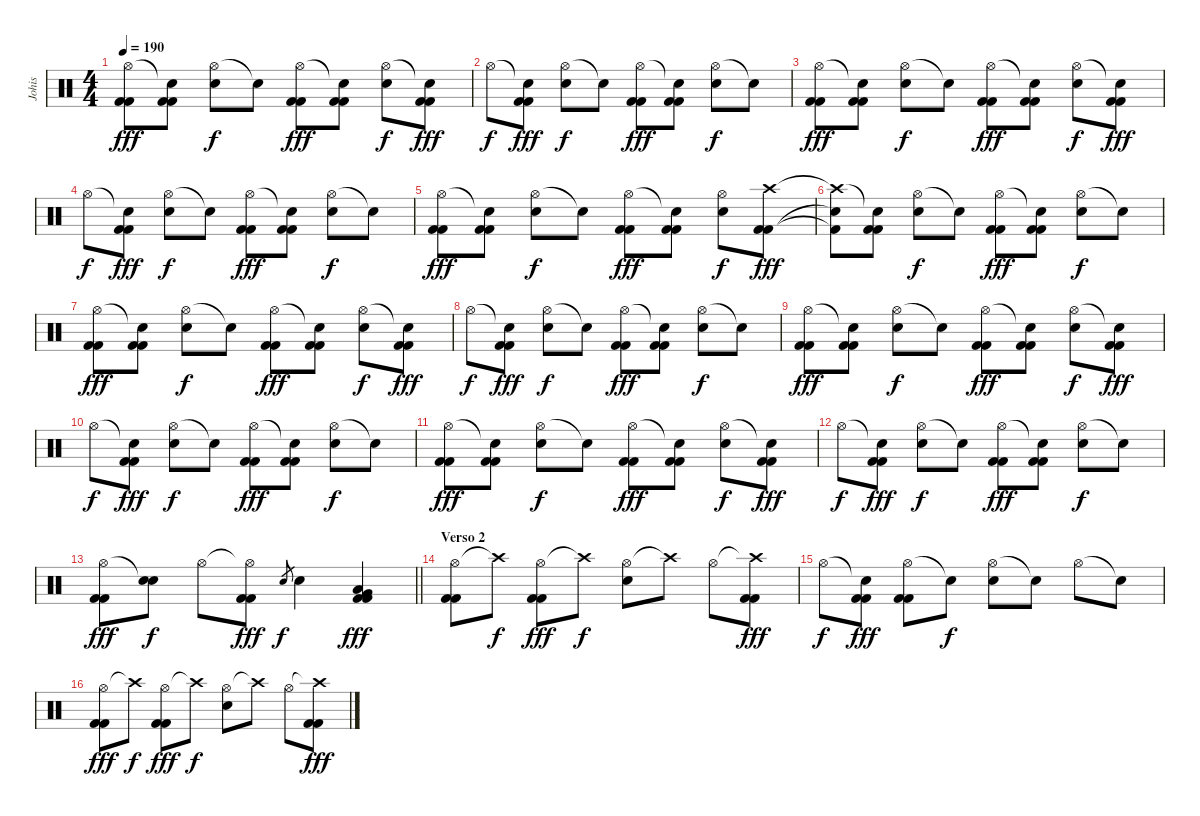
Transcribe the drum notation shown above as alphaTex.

\track ("Johis" "Johis") {instrument percussion}
\staff {score}
\articulation defaults
\ts (4 4)
\tempo 190
\clef neutral
\ks c
("Hi-Hat (open)" "Kick (hit) 2" "Kick (hit) 2").8{dy fff} ("Snare (hit)"{t} "Kick (hit) 2" "Kick (hit) 2").8 ("Hi-Hat (open)" "Electric Snare (hit)").8{dy f} "Snare (hit)"{t}.8 ("Hi-Hat (open)" "Kick (hit) 2" "Kick (hit) 2").8{dy fff} ("Snare (hit)"{t} "Kick (hit) 2" "Kick (hit) 2").8 ("Hi-Hat (open)" "Electric Snare (hit)").8{dy f} ("Snare (hit)"{t} "Kick (hit) 2" "Kick (hit) 2").8{dy fff} |
"Hi-Hat (open)".8{dy f} ("Snare (hit)"{t} "Kick (hit) 2" "Kick (hit) 2").8{dy fff} ("Hi-Hat (open)" "Electric Snare (hit)").8{dy f} "Snare (hit)"{t}.8 ("Hi-Hat (open)" "Kick (hit) 2" "Kick (hit) 2").8{dy fff} ("Snare (hit)"{t} "Kick (hit) 2" "Kick (hit) 2").8 ("Hi-Hat (open)" "Electric Snare (hit)").8{dy f} "Snare (hit)"{t}.8 |
("Hi-Hat (open)" "Kick (hit) 2" "Kick (hit) 2").8{dy fff} ("Snare (hit)"{t} "Kick (hit) 2" "Kick (hit) 2").8 ("Hi-Hat (open)" "Electric Snare (hit)").8{dy f} "Snare (hit)"{t}.8 ("Hi-Hat (open)" "Kick (hit) 2" "Kick (hit) 2").8{dy fff} ("Snare (hit)"{t} "Kick (hit) 2" "Kick (hit) 2").8 ("Hi-Hat (open)" "Electric Snare (hit)").8{dy f} ("Snare (hit)"{t} "Kick (hit) 2" "Kick (hit) 2").8{dy fff} |
"Hi-Hat (open)".8{dy f} ("Snare (hit)"{t} "Kick (hit) 2" "Kick (hit) 2").8{dy fff} ("Hi-Hat (open)" "Electric Snare (hit)").8{dy f} "Snare (hit)"{t}.8 ("Hi-Hat (open)" "Kick (hit) 2" "Kick (hit) 2").8{dy fff} ("Snare (hit)"{t} "Kick (hit) 2" "Kick (hit) 2").8 ("Hi-Hat (open)" "Electric Snare (hit)").8{dy f} "Snare (hit)"{t}.8 |
("Hi-Hat (open)" "Kick (hit) 2" "Kick (hit) 2").8{dy fff} ("Snare (hit)"{t} "Kick (hit) 2" "Kick (hit) 2").8 ("Hi-Hat (open)" "Electric Snare (hit)").8{dy f} "Snare (hit)"{t}.8 ("Hi-Hat (open)" "Kick (hit) 2" "Kick (hit) 2").8{dy fff} ("Snare (hit)"{t} "Kick (hit) 2" "Kick (hit) 2").8 ("Hi-Hat (open)" "Electric Snare (hit)").8{dy f} ("Crash high (hit)" "Kick (hit) 2" "Kick (hit) 2").8{dy fff} |
("Crash high (hit)"{t} "Snare (hit)"{t} "Kick (hit) 2"{t}).8 ("Snare (hit)"{t} "Kick (hit) 2" "Kick (hit) 2").8 ("Hi-Hat (open)" "Electric Snare (hit)").8{dy f} "Snare (hit)"{t}.8 ("Hi-Hat (open)" "Kick (hit) 2" "Kick (hit) 2").8{dy fff} ("Snare (hit)"{t} "Kick (hit) 2" "Kick (hit) 2").8 ("Hi-Hat (open)" "Electric Snare (hit)").8{dy f} "Snare (hit)"{t}.8 |
("Hi-Hat (open)" "Kick (hit) 2" "Kick (hit) 2").8{dy fff} ("Snare (hit)"{t} "Kick (hit) 2" "Kick (hit) 2").8 ("Hi-Hat (open)" "Electric Snare (hit)").8{dy f} "Snare (hit)"{t}.8 ("Hi-Hat (open)" "Kick (hit) 2" "Kick (hit) 2").8{dy fff} ("Snare (hit)"{t} "Kick (hit) 2" "Kick (hit) 2").8 ("Hi-Hat (open)" "Electric Snare (hit)").8{dy f} ("Snare (hit)"{t} "Kick (hit) 2" "Kick (hit) 2").8{dy fff} |
"Hi-Hat (open)".8{dy f} ("Snare (hit)"{t} "Kick (hit) 2" "Kick (hit) 2").8{dy fff} ("Hi-Hat (open)" "Electric Snare (hit)").8{dy f} "Snare (hit)"{t}.8 ("Hi-Hat (open)" "Kick (hit) 2" "Kick (hit) 2").8{dy fff} ("Snare (hit)"{t} "Kick (hit) 2" "Kick (hit) 2").8 ("Hi-Hat (open)" "Electric Snare (hit)").8{dy f} "Snare (hit)"{t}.8 |
("Hi-Hat (open)" "Kick (hit) 2" "Kick (hit) 2").8{dy fff} ("Snare (hit)"{t} "Kick (hit) 2" "Kick (hit) 2").8 ("Hi-Hat (open)" "Electric Snare (hit)").8{dy f} "Snare (hit)"{t}.8 ("Hi-Hat (open)" "Kick (hit) 2" "Kick (hit) 2").8{dy fff} ("Snare (hit)"{t} "Kick (hit) 2" "Kick (hit) 2").8 ("Hi-Hat (open)" "Electric Snare (hit)").8{dy f} ("Snare (hit)"{t} "Kick (hit) 2" "Kick (hit) 2").8{dy fff} |
"Hi-Hat (open)".8{dy f} ("Snare (hit)"{t} "Kick (hit) 2" "Kick (hit) 2").8{dy fff} ("Hi-Hat (open)" "Electric Snare (hit)").8{dy f} "Snare (hit)"{t}.8 ("Hi-Hat (open)" "Kick (hit) 2" "Kick (hit) 2").8{dy fff} ("Snare (hit)"{t} "Kick (hit) 2" "Kick (hit) 2").8 ("Hi-Hat (open)" "Electric Snare (hit)").8{dy f} "Snare (hit)"{t}.8 |
("Hi-Hat (open)" "Kick (hit) 2" "Kick (hit) 2").8{dy fff} ("Snare (hit)"{t} "Kick (hit) 2" "Kick (hit) 2").8 ("Hi-Hat (open)" "Electric Snare (hit)").8{dy f} "Snare (hit)"{t}.8 ("Hi-Hat (open)" "Kick (hit) 2" "Kick (hit) 2").8{dy fff} ("Snare (hit)"{t} "Kick (hit) 2" "Kick (hit) 2").8 ("Hi-Hat (open)" "Electric Snare (hit)").8{dy f} ("Snare (hit)"{t} "Kick (hit) 2" "Kick (hit) 2").8{dy fff} |
"Hi-Hat (open)".8{dy f} ("Snare (hit)"{t} "Kick (hit) 2" "Kick (hit) 2").8{dy fff} ("Hi-Hat (open)" "Electric Snare (hit)").8{dy f} "Snare (hit)"{t}.8 ("Hi-Hat (open)" "Kick (hit) 2" "Kick (hit) 2").8{dy fff} ("Snare (hit)"{t} "Kick (hit) 2" "Kick (hit) 2").8 ("Hi-Hat (open)" "Electric Snare (hit)").8{dy f} "Snare (hit)"{t}.8 |
\barLineRight lightlight
("Hi-Hat (open)" "Kick (hit) 2" "Kick (hit) 2").8{dy fff} ("Snare (hit)"{t} "Electric Snare (hit)").8{dy f} "Hi-Hat (open)".8 ("Hi-Hat (open)"{t} "Kick (hit) 2" "Kick (hit) 2").8{dy fff} "Electric Snare (hit)".8{gr dy f} "Electric Snare (hit)".4 ("Low Tom (hit)" "Very Low Tom (hit)" "Kick (hit) 2" "Kick (hit) 2").4{bd 120 dy fff} |
\section ("" "Verso 2")
("Hi-Hat (open)" "Kick (hit) 2" "Kick (hit) 2").8 "Crash high (hit)"{t}.8{dy f} ("Hi-Hat (open)" "Kick (hit) 2" "Kick (hit) 2").8{dy fff} "Crash high (hit)"{t}.8{dy f} ("Hi-Hat (open)" "Electric Snare (hit)").8 "Crash high (hit)"{t}.8 "Hi-Hat (open)".8 ("Crash high (hit)"{t} "Kick (hit) 2" "Kick (hit) 2").8{dy fff} |
"Hi-Hat (open)".8{dy f} ("Snare (hit)"{t} "Kick (hit) 2" "Kick (hit) 2").8{dy fff} ("Hi-Hat (open)" "Kick (hit) 2" "Kick (hit) 2").8 "Snare (hit)"{t}.8{dy f} ("Hi-Hat (open)" "Electric Snare (hit)").8 "Snare (hit)"{t}.8 "Hi-Hat (open)".8 "Snare (hit)"{t}.8 |
("Hi-Hat (open)" "Kick (hit) 2" "Kick (hit) 2").8{dy fff} "Crash high (hit)"{t}.8{dy f} ("Hi-Hat (open)" "Kick (hit) 2" "Kick (hit) 2").8{dy fff} "Crash high (hit)"{t}.8{dy f} ("Hi-Hat (open)" "Electric Snare (hit)").8 "Crash high (hit)"{t}.8 "Hi-Hat (open)".8 ("Crash high (hit)"{t} "Kick (hit) 2" "Kick (hit) 2").8{dy fff}
